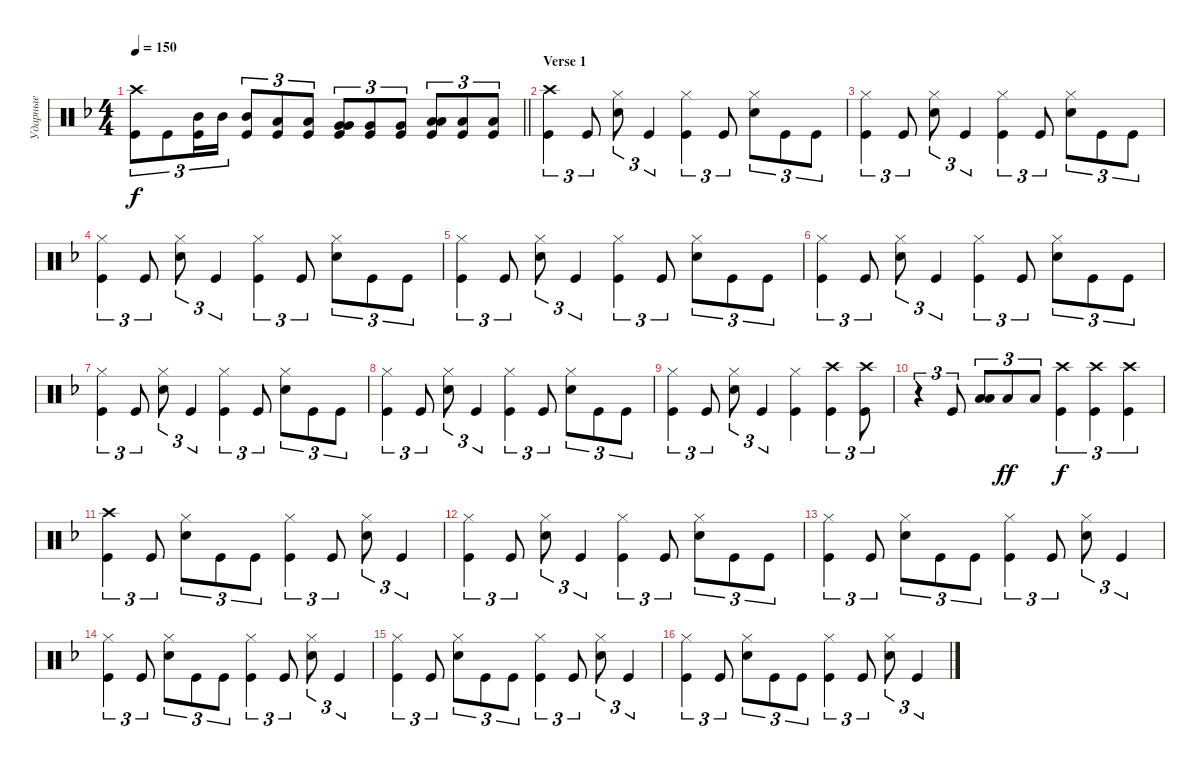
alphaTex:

\track ("Ударные" "Ударные") {instrument percussion}
\staff {score}
\articulation defaults
\ts (4 4)
\tempo 150
\clef neutral
\barLineRight lightlight
\ks dminor
("Kick (hit)" "Crash high (hit)").8{tu (3 2) dy f} "Kick (hit)".8{tu (3 2)} ("Mid Tom (hit)" "Kick (hit)").16{tu (3 2)} "Mid Tom (hit)".16{tu (3 2)} ("Mid Tom (hit)" "Kick (hit)").8{tu (3 2)} ("Low Tom (hit)" "Kick (hit)").8{tu (3 2)} ("Low Tom (hit)" "Kick (hit)").8{tu (3 2)} ("Kick (hit)" "Very Low Tom (hit)" "Very Low Tom (hit)").8{tu (3 2) bd 240} ("Kick (hit)" "Very Low Tom (hit)").8{tu (3 2)} ("Kick (hit)" "Very Low Tom (hit)").8{tu (3 2)} ("Kick (hit)" "Low Floor Tom (hit)" "Low Floor Tom (hit)").8{tu (3 2) bd 240} ("Kick (hit)" "Low Floor Tom (hit)").8{tu (3 2)} ("Kick (hit)" "Low Floor Tom (hit)").8{tu (3 2)} |
\section ("" "Verse 1")
("Kick (hit)" "Crash high (hit)").4{tu (3 2)} "Kick (hit)".8{tu (3 2)} ("Snare (hit) 2" "Hi-Hat (closed)").8{tu (3 2)} "Kick (hit)".4{tu (3 2)} ("Kick (hit)" "Hi-Hat (closed)").4{tu (3 2)} "Kick (hit)".8{tu (3 2)} ("Snare (hit) 2" "Hi-Hat (closed)").8{tu (3 2)} "Kick (hit)".8{tu (3 2)} "Kick (hit)".8{tu (3 2)} |
("Kick (hit)" "Hi-Hat (closed)").4{tu (3 2)} "Kick (hit)".8{tu (3 2)} ("Snare (hit) 2" "Hi-Hat (closed)").8{tu (3 2)} "Kick (hit)".4{tu (3 2)} ("Kick (hit)" "Hi-Hat (closed)").4{tu (3 2)} "Kick (hit)".8{tu (3 2)} ("Snare (hit) 2" "Hi-Hat (closed)").8{tu (3 2)} "Kick (hit)".8{tu (3 2)} "Kick (hit)".8{tu (3 2)} |
("Kick (hit)" "Hi-Hat (closed)").4{tu (3 2)} "Kick (hit)".8{tu (3 2)} ("Snare (hit) 2" "Hi-Hat (closed)").8{tu (3 2)} "Kick (hit)".4{tu (3 2)} ("Kick (hit)" "Hi-Hat (closed)").4{tu (3 2)} "Kick (hit)".8{tu (3 2)} ("Snare (hit) 2" "Hi-Hat (closed)").8{tu (3 2)} "Kick (hit)".8{tu (3 2)} "Kick (hit)".8{tu (3 2)} |
("Kick (hit)" "Hi-Hat (closed)").4{tu (3 2)} "Kick (hit)".8{tu (3 2)} ("Snare (hit) 2" "Hi-Hat (closed)").8{tu (3 2)} "Kick (hit)".4{tu (3 2)} ("Kick (hit)" "Hi-Hat (closed)").4{tu (3 2)} "Kick (hit)".8{tu (3 2)} ("Snare (hit) 2" "Hi-Hat (closed)").8{tu (3 2)} "Kick (hit)".8{tu (3 2)} "Kick (hit)".8{tu (3 2)} |
("Kick (hit)" "Hi-Hat (closed)").4{tu (3 2)} "Kick (hit)".8{tu (3 2)} ("Snare (hit) 2" "Hi-Hat (closed)").8{tu (3 2)} "Kick (hit)".4{tu (3 2)} ("Kick (hit)" "Hi-Hat (closed)").4{tu (3 2)} "Kick (hit)".8{tu (3 2)} ("Snare (hit) 2" "Hi-Hat (closed)").8{tu (3 2)} "Kick (hit)".8{tu (3 2)} "Kick (hit)".8{tu (3 2)} |
("Kick (hit)" "Hi-Hat (closed)").4{tu (3 2)} "Kick (hit)".8{tu (3 2)} ("Snare (hit) 2" "Hi-Hat (closed)").8{tu (3 2)} "Kick (hit)".4{tu (3 2)} ("Kick (hit)" "Hi-Hat (closed)").4{tu (3 2)} "Kick (hit)".8{tu (3 2)} ("Snare (hit) 2" "Hi-Hat (closed)").8{tu (3 2)} "Kick (hit)".8{tu (3 2)} "Kick (hit)".8{tu (3 2)} |
("Kick (hit)" "Hi-Hat (closed)").4{tu (3 2)} "Kick (hit)".8{tu (3 2)} ("Snare (hit) 2" "Hi-Hat (closed)").8{tu (3 2)} "Kick (hit)".4{tu (3 2)} ("Kick (hit)" "Hi-Hat (closed)").4{tu (3 2)} "Kick (hit)".8{tu (3 2)} ("Snare (hit) 2" "Hi-Hat (closed)").8{tu (3 2)} "Kick (hit)".8{tu (3 2)} "Kick (hit)".8{tu (3 2)} |
("Kick (hit)" "Hi-Hat (closed)").4{tu (3 2)} "Kick (hit)".8{tu (3 2)} ("Snare (hit) 2" "Hi-Hat (closed)").8{tu (3 2)} "Kick (hit)".4{tu (3 2)} ("Kick (hit)" "Hi-Hat (closed)").4 ("Kick (hit)" "Crash high (hit)").4{tu (3 2)} ("Kick (hit)" "Crash high (hit)").8{tu (3 2)} |
r.4{tu (3 2)} "Kick (hit)".8{tu (3 2)} ("Low Tom (hit)" "Low Tom (hit)").8{tu (3 2) bd 480} "Low Tom (hit)".8{tu (3 2) dy ff} "Low Tom (hit)".8{tu (3 2)} ("Kick (hit)" "Crash high (hit)").4{tu (3 2) dy f} ("Kick (hit)" "Crash high (hit)").4{tu (3 2)} ("Kick (hit)" "Crash high (hit)").4{tu (3 2)} |
("Kick (hit)" "Crash high (hit)").4{tu (3 2)} "Kick (hit)".8{tu (3 2)} ("Snare (hit) 2" "Hi-Hat (closed)").8{tu (3 2)} "Kick (hit)".8{tu (3 2)} "Kick (hit)".8{tu (3 2)} ("Kick (hit)" "Hi-Hat (closed)").4{tu (3 2)} "Kick (hit)".8{tu (3 2)} ("Snare (hit) 2" "Hi-Hat (closed)").8{tu (3 2)} "Kick (hit)".4{tu (3 2)} |
("Kick (hit)" "Hi-Hat (closed)").4{tu (3 2)} "Kick (hit)".8{tu (3 2)} ("Snare (hit) 2" "Hi-Hat (closed)").8{tu (3 2)} "Kick (hit)".4{tu (3 2)} ("Kick (hit)" "Hi-Hat (closed)").4{tu (3 2)} "Kick (hit)".8{tu (3 2)} ("Snare (hit) 2" "Hi-Hat (closed)").8{tu (3 2)} "Kick (hit)".8{tu (3 2)} "Kick (hit)".8{tu (3 2)} |
("Kick (hit)" "Hi-Hat (closed)").4{tu (3 2)} "Kick (hit)".8{tu (3 2)} ("Snare (hit) 2" "Hi-Hat (closed)").8{tu (3 2)} "Kick (hit)".8{tu (3 2)} "Kick (hit)".8{tu (3 2)} ("Kick (hit)" "Hi-Hat (closed)").4{tu (3 2)} "Kick (hit)".8{tu (3 2)} ("Snare (hit) 2" "Hi-Hat (closed)").8{tu (3 2)} "Kick (hit)".4{tu (3 2)} |
("Kick (hit)" "Hi-Hat (closed)").4{tu (3 2)} "Kick (hit)".8{tu (3 2)} ("Snare (hit) 2" "Hi-Hat (closed)").8{tu (3 2)} "Kick (hit)".8{tu (3 2)} "Kick (hit)".8{tu (3 2)} ("Kick (hit)" "Hi-Hat (closed)").4{tu (3 2)} "Kick (hit)".8{tu (3 2)} ("Snare (hit) 2" "Hi-Hat (closed)").8{tu (3 2)} "Kick (hit)".4{tu (3 2)} |
("Kick (hit)" "Hi-Hat (closed)").4{tu (3 2)} "Kick (hit)".8{tu (3 2)} ("Snare (hit) 2" "Hi-Hat (closed)").8{tu (3 2)} "Kick (hit)".8{tu (3 2)} "Kick (hit)".8{tu (3 2)} ("Kick (hit)" "Hi-Hat (closed)").4{tu (3 2)} "Kick (hit)".8{tu (3 2)} ("Snare (hit) 2" "Hi-Hat (closed)").8{tu (3 2)} "Kick (hit)".4{tu (3 2)} |
("Kick (hit)" "Hi-Hat (closed)").4{tu (3 2)} "Kick (hit)".8{tu (3 2)} ("Snare (hit) 2" "Hi-Hat (closed)").8{tu (3 2)} "Kick (hit)".8{tu (3 2)} "Kick (hit)".8{tu (3 2)} ("Kick (hit)" "Hi-Hat (closed)").4{tu (3 2)} "Kick (hit)".8{tu (3 2)} ("Snare (hit) 2" "Hi-Hat (closed)").8{tu (3 2)} "Kick (hit)".4{tu (3 2)}
